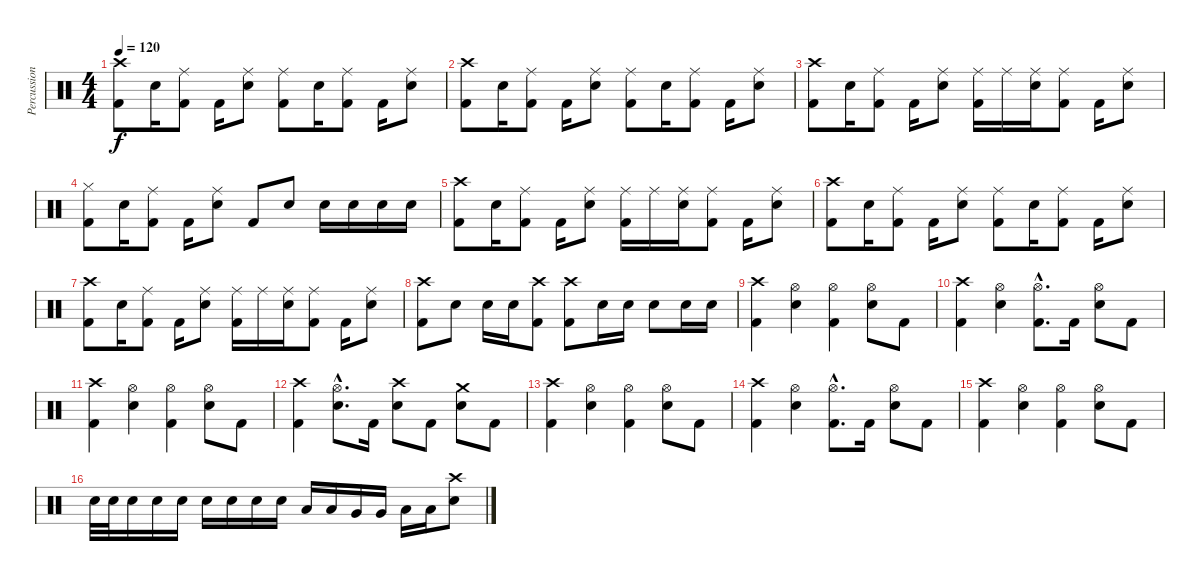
\track ("Percussion" "Percussion") {instrument percussion}
\staff {score}
\articulation defaults
\ts (4 4)
\tempo 120
\clef neutral
\ks c
("Crash high (hit)" "Kick (hit) 2").8{dy f} "Snare (hit) 2".16 ("Ride (middle)" "Kick (hit) 2").8 "Kick (hit) 2".16 ("Ride (middle)" "Snare (hit) 2").8 ("Ride (middle)" "Kick (hit) 2").8 "Snare (hit) 2".16 ("Ride (middle)" "Kick (hit) 2").8 "Kick (hit) 2".16 ("Ride (middle)" "Snare (hit) 2").8 |
("Crash high (hit)" "Kick (hit) 2").8 "Snare (hit) 2".16 ("Ride (middle)" "Kick (hit) 2").8 "Kick (hit) 2".16 ("Ride (middle)" "Snare (hit) 2").8 ("Ride (middle)" "Kick (hit) 2").8 "Snare (hit) 2".16 ("Ride (middle)" "Kick (hit) 2").8 "Kick (hit) 2".16 ("Ride (middle)" "Snare (hit) 2").8 |
("Crash high (hit)" "Kick (hit) 2").8 "Snare (hit) 2".16 ("Ride (middle)" "Kick (hit) 2").8 "Kick (hit) 2".16 ("Ride (middle)" "Snare (hit) 2").8 ("Ride (middle)" "Kick (hit) 2").16 "Ride (middle)".16 ("Ride (middle)" "Snare (hit) 2").16 ("Ride (middle)" "Kick (hit) 2").8 "Kick (hit) 2".16 ("Ride (middle)" "Snare (hit) 2").8 |
("Hi-Hat (closed)" "Kick (hit) 2").8 "Snare (hit) 2".16 ("Ride (middle)" "Kick (hit) 2").8 "Kick (hit) 2".16 ("Ride (middle)" "Snare (hit) 2").8 "Kick (hit) 2".8 "Snare (hit) 2".8 "Snare (hit) 2".16 "Snare (hit) 2".16 "Snare (hit) 2".16 "Snare (hit) 2".16 |
("Crash high (hit)" "Kick (hit) 2").8 "Snare (hit) 2".16 ("Ride (middle)" "Kick (hit) 2").8 "Kick (hit) 2".16 ("Ride (middle)" "Snare (hit) 2").8 ("Ride (middle)" "Kick (hit) 2").16 "Ride (middle)".16 ("Ride (middle)" "Snare (hit) 2").16 ("Ride (middle)" "Kick (hit) 2").8 "Kick (hit) 2".16 ("Ride (middle)" "Snare (hit) 2").8 |
("Crash high (hit)" "Kick (hit) 2").8 "Snare (hit) 2".16 ("Ride (middle)" "Kick (hit) 2").8 "Kick (hit) 2".16 ("Ride (middle)" "Snare (hit) 2").8 ("Ride (middle)" "Kick (hit) 2").8 "Snare (hit) 2".16 ("Ride (middle)" "Kick (hit) 2").8 "Kick (hit) 2".16 ("Ride (middle)" "Snare (hit) 2").8 |
("Crash high (hit)" "Kick (hit) 2").8 "Snare (hit) 2".16 ("Ride (middle)" "Kick (hit) 2").8 "Kick (hit) 2".16 ("Ride (middle)" "Snare (hit) 2").8 ("Ride (middle)" "Kick (hit) 2").16 "Ride (middle)".16 ("Ride (middle)" "Snare (hit) 2").16 ("Ride (middle)" "Kick (hit) 2").8 "Kick (hit) 2".16 ("Ride (middle)" "Snare (hit) 2").8 |
("Crash high (hit)" "Kick (hit) 2").8 "Snare (hit) 2".8 "Snare (hit) 2".16 "Snare (hit) 2".16 ("Crash high (hit)" "Kick (hit) 2").8 ("Crash high (hit)" "Kick (hit) 2").8 "Snare (hit) 2".16 "Snare (hit) 2".16 "Snare (hit) 2".8 "Snare (hit) 2".16 "Snare (hit) 2".16 |
("Crash high (hit)" "Kick (hit) 2").4 ("Hi-Hat (open)" "Snare (hit) 2").4 ("Hi-Hat (open)" "Kick (hit) 2").4 ("Hi-Hat (open)" "Snare (hit) 2").8 "Kick (hit) 2".8 |
("Crash high (hit)" "Kick (hit) 2").4 ("Hi-Hat (open)" "Snare (hit) 2").4 ("Hi-Hat (open)"{hac} "Kick (hit) 2"{hac}).8{d} "Kick (hit) 2".16 ("Hi-Hat (open)" "Snare (hit) 2").8 "Kick (hit) 2".8 |
("Crash high (hit)" "Kick (hit) 2").4 ("Hi-Hat (open)" "Snare (hit) 2").4 ("Hi-Hat (open)" "Kick (hit) 2").4 ("Hi-Hat (open)" "Snare (hit) 2").8 "Kick (hit) 2".8 |
("Crash high (hit)" "Kick (hit) 2").4 ("Hi-Hat (open)"{hac} "Snare (hit) 2"{hac}).8{d} "Kick (hit) 2".16 ("Crash high (hit)" "Snare (hit) 2").8 "Kick (hit) 2".8 ("Crash medium (hit)" "Snare (hit) 2").8 "Kick (hit) 2".8 |
("Crash high (hit)" "Kick (hit) 2").4 ("Hi-Hat (open)" "Snare (hit) 2").4 ("Hi-Hat (open)" "Kick (hit) 2").4 ("Hi-Hat (open)" "Snare (hit) 2").8 "Kick (hit) 2".8 |
("Crash high (hit)" "Kick (hit) 2").4 ("Hi-Hat (open)" "Snare (hit) 2").4 ("Hi-Hat (open)"{hac} "Kick (hit) 2"{hac}).8{d} "Kick (hit) 2".16 ("Hi-Hat (open)" "Snare (hit) 2").8 "Kick (hit) 2".8 |
("Crash high (hit)" "Kick (hit) 2").4 ("Hi-Hat (open)" "Snare (hit) 2").4 ("Hi-Hat (open)" "Kick (hit) 2").4 ("Hi-Hat (open)" "Snare (hit) 2").8 "Kick (hit) 2".8 |
"Snare (hit) 2".32 "Snare (hit) 2".32 "Snare (hit) 2".16 "Snare (hit) 2".16 "Snare (hit) 2".16 "Snare (hit) 2".16 "Snare (hit) 2".16 "Snare (hit) 2".16 "Snare (hit) 2".16 "Low Tom (hit)".16 "Low Tom (hit)".16 "Very Low Tom (hit)".16 "Very Low Tom (hit)".16 "Low Floor Tom (hit)".16 "Low Floor Tom (hit)".16 ("Crash high (hit)" "Snare (hit) 2").8
